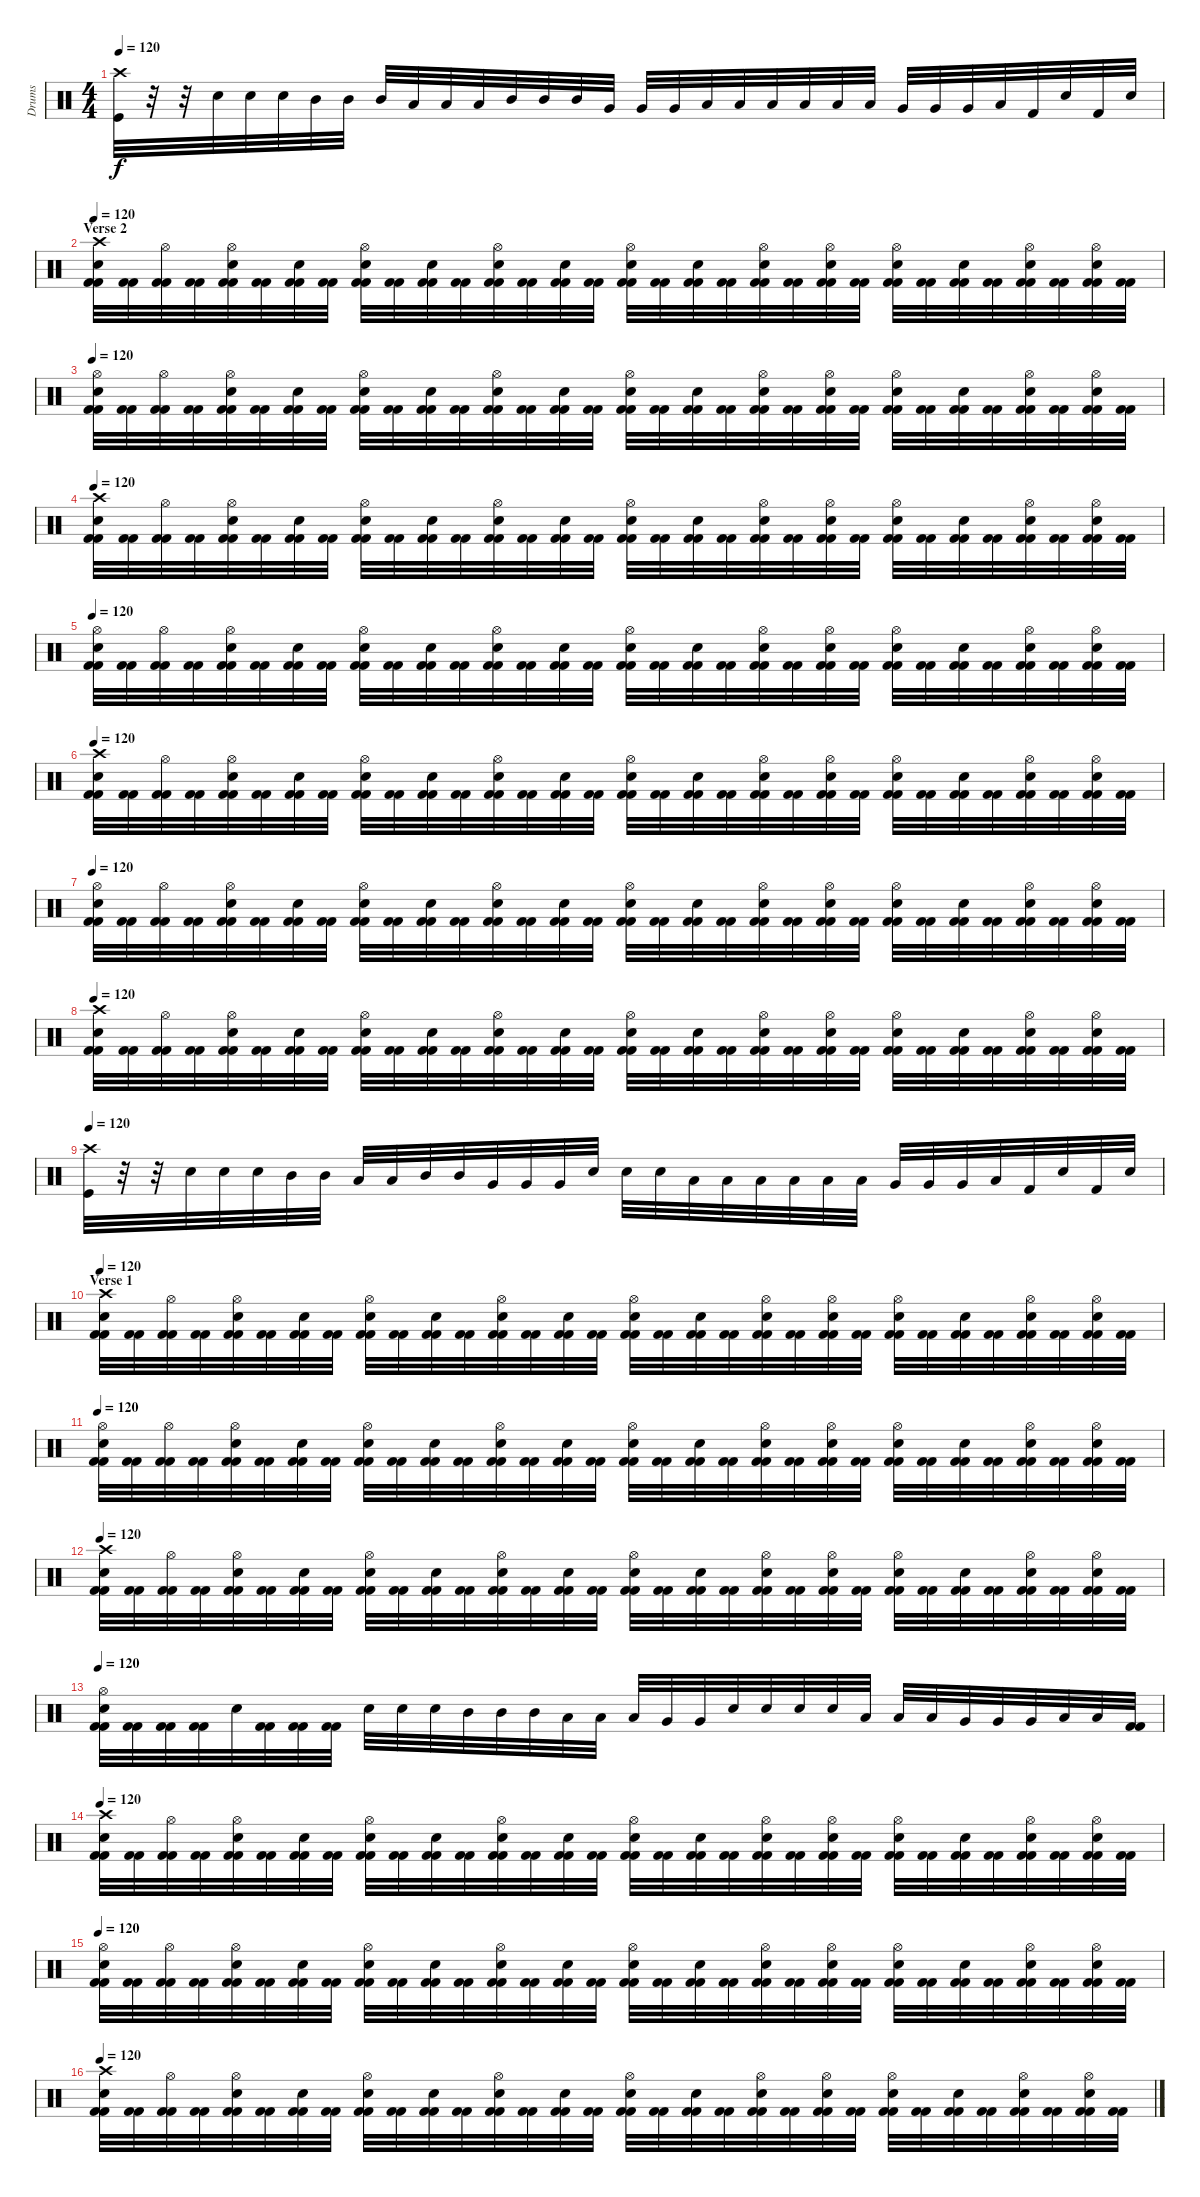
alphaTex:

\track ("Drums" "Drums") {instrument percussion}
\staff {score}
\articulation defaults
\ts (4 4)
\tempo 120
\clef neutral
\ks c
("Crash high (hit)" "Kick (hit)").32{dy f} r.32 r.32 "Electric Snare (hit)".32 "Electric Snare (hit)".32 "Electric Snare (hit)".32 "Mid Tom (hit)".32 "Mid Tom (hit)".32 "Mid Tom (hit)".32 "Low Tom (hit)".32 "Low Tom (hit)".32 "Low Tom (hit)".32 "Mid Tom (hit)".32 "Mid Tom (hit)".32 "Mid Tom (hit)".32 "Very Low Tom (hit)".32 "Very Low Tom (hit)".32 "Very Low Tom (hit)".32 "Low Tom (hit)".32 "Low Tom (hit)".32 "Low Tom (hit)".32 "Low Floor Tom (hit)".32 "Low Floor Tom (hit)".32 "Low Floor Tom (hit)".32 "Very Low Tom (hit)".32 "Very Low Tom (hit)".32 "Very Low Tom (hit)".32 "Low Floor Tom (hit)".32 "Kick (hit) 2".32 "Electric Snare (hit)".32 "Kick (hit) 2".32 "Electric Snare (hit)".32 |
\section ("" "Verse 2")
\tempo 120
("Crash high (hit)" "Electric Snare (hit)" "Kick (hit) 2" "Kick (hit) 2").32 ("Kick (hit) 2" "Kick (hit) 2").32 ("Hi-Hat (open)" "Kick (hit) 2" "Kick (hit) 2").32 ("Kick (hit) 2" "Kick (hit) 2").32 ("Hi-Hat (open)" "Electric Snare (hit)" "Kick (hit) 2" "Kick (hit) 2").32 ("Kick (hit) 2" "Kick (hit) 2").32 ("Electric Snare (hit)" "Kick (hit) 2" "Kick (hit) 2").32 ("Kick (hit) 2" "Kick (hit) 2").32 ("Hi-Hat (open)" "Electric Snare (hit)" "Kick (hit) 2" "Kick (hit) 2").32 ("Kick (hit) 2" "Kick (hit) 2").32 ("Electric Snare (hit)" "Kick (hit) 2" "Kick (hit) 2").32 ("Kick (hit) 2" "Kick (hit) 2").32 ("Hi-Hat (open)" "Electric Snare (hit)" "Kick (hit) 2" "Kick (hit) 2").32 ("Kick (hit) 2" "Kick (hit) 2").32 ("Electric Snare (hit)" "Kick (hit) 2" "Kick (hit) 2").32 ("Kick (hit) 2" "Kick (hit) 2").32 ("Hi-Hat (open)" "Electric Snare (hit)" "Kick (hit) 2" "Kick (hit) 2").32 ("Kick (hit) 2" "Kick (hit) 2").32 ("Electric Snare (hit)" "Kick (hit) 2" "Kick (hit) 2").32 ("Kick (hit) 2" "Kick (hit) 2").32 ("Hi-Hat (open)" "Electric Snare (hit)" "Kick (hit) 2" "Kick (hit) 2").32 ("Kick (hit) 2" "Kick (hit) 2").32 ("Hi-Hat (open)" "Electric Snare (hit)" "Kick (hit) 2" "Kick (hit) 2").32 ("Kick (hit) 2" "Kick (hit) 2").32 ("Hi-Hat (open)" "Electric Snare (hit)" "Kick (hit) 2" "Kick (hit) 2").32 ("Kick (hit) 2" "Kick (hit) 2").32 ("Electric Snare (hit)" "Kick (hit) 2" "Kick (hit) 2").32 ("Kick (hit) 2" "Kick (hit) 2").32 ("Hi-Hat (open)" "Electric Snare (hit)" "Kick (hit) 2" "Kick (hit) 2").32 ("Kick (hit) 2" "Kick (hit) 2").32 ("Hi-Hat (open)" "Electric Snare (hit)" "Kick (hit) 2" "Kick (hit) 2").32 ("Kick (hit) 2" "Kick (hit) 2").32 |
\tempo 120
("Hi-Hat (open)" "Electric Snare (hit)" "Kick (hit) 2" "Kick (hit) 2").32 ("Kick (hit) 2" "Kick (hit) 2").32 ("Hi-Hat (open)" "Kick (hit) 2" "Kick (hit) 2").32 ("Kick (hit) 2" "Kick (hit) 2").32 ("Hi-Hat (open)" "Electric Snare (hit)" "Kick (hit) 2" "Kick (hit) 2").32 ("Kick (hit) 2" "Kick (hit) 2").32 ("Electric Snare (hit)" "Kick (hit) 2" "Kick (hit) 2").32 ("Kick (hit) 2" "Kick (hit) 2").32 ("Hi-Hat (open)" "Electric Snare (hit)" "Kick (hit) 2" "Kick (hit) 2").32 ("Kick (hit) 2" "Kick (hit) 2").32 ("Electric Snare (hit)" "Kick (hit) 2" "Kick (hit) 2").32 ("Kick (hit) 2" "Kick (hit) 2").32 ("Hi-Hat (open)" "Electric Snare (hit)" "Kick (hit) 2" "Kick (hit) 2").32 ("Kick (hit) 2" "Kick (hit) 2").32 ("Electric Snare (hit)" "Kick (hit) 2" "Kick (hit) 2").32 ("Kick (hit) 2" "Kick (hit) 2").32 ("Hi-Hat (open)" "Electric Snare (hit)" "Kick (hit) 2" "Kick (hit) 2").32 ("Kick (hit) 2" "Kick (hit) 2").32 ("Electric Snare (hit)" "Kick (hit) 2" "Kick (hit) 2").32 ("Kick (hit) 2" "Kick (hit) 2").32 ("Hi-Hat (open)" "Electric Snare (hit)" "Kick (hit) 2" "Kick (hit) 2").32 ("Kick (hit) 2" "Kick (hit) 2").32 ("Hi-Hat (open)" "Electric Snare (hit)" "Kick (hit) 2" "Kick (hit) 2").32 ("Kick (hit) 2" "Kick (hit) 2").32 ("Hi-Hat (open)" "Electric Snare (hit)" "Kick (hit) 2" "Kick (hit) 2").32 ("Kick (hit) 2" "Kick (hit) 2").32 ("Electric Snare (hit)" "Kick (hit) 2" "Kick (hit) 2").32 ("Kick (hit) 2" "Kick (hit) 2").32 ("Hi-Hat (open)" "Electric Snare (hit)" "Kick (hit) 2" "Kick (hit) 2").32 ("Kick (hit) 2" "Kick (hit) 2").32 ("Hi-Hat (open)" "Electric Snare (hit)" "Kick (hit) 2" "Kick (hit) 2").32 ("Kick (hit) 2" "Kick (hit) 2").32 |
\tempo 120
("Crash high (hit)" "Electric Snare (hit)" "Kick (hit) 2" "Kick (hit) 2").32 ("Kick (hit) 2" "Kick (hit) 2").32 ("Hi-Hat (open)" "Kick (hit) 2" "Kick (hit) 2").32 ("Kick (hit) 2" "Kick (hit) 2").32 ("Hi-Hat (open)" "Electric Snare (hit)" "Kick (hit) 2" "Kick (hit) 2").32 ("Kick (hit) 2" "Kick (hit) 2").32 ("Electric Snare (hit)" "Kick (hit) 2" "Kick (hit) 2").32 ("Kick (hit) 2" "Kick (hit) 2").32 ("Hi-Hat (open)" "Electric Snare (hit)" "Kick (hit) 2" "Kick (hit) 2").32 ("Kick (hit) 2" "Kick (hit) 2").32 ("Electric Snare (hit)" "Kick (hit) 2" "Kick (hit) 2").32 ("Kick (hit) 2" "Kick (hit) 2").32 ("Hi-Hat (open)" "Electric Snare (hit)" "Kick (hit) 2" "Kick (hit) 2").32 ("Kick (hit) 2" "Kick (hit) 2").32 ("Electric Snare (hit)" "Kick (hit) 2" "Kick (hit) 2").32 ("Kick (hit) 2" "Kick (hit) 2").32 ("Hi-Hat (open)" "Electric Snare (hit)" "Kick (hit) 2" "Kick (hit) 2").32 ("Kick (hit) 2" "Kick (hit) 2").32 ("Electric Snare (hit)" "Kick (hit) 2" "Kick (hit) 2").32 ("Kick (hit) 2" "Kick (hit) 2").32 ("Hi-Hat (open)" "Electric Snare (hit)" "Kick (hit) 2" "Kick (hit) 2").32 ("Kick (hit) 2" "Kick (hit) 2").32 ("Hi-Hat (open)" "Electric Snare (hit)" "Kick (hit) 2" "Kick (hit) 2").32 ("Kick (hit) 2" "Kick (hit) 2").32 ("Hi-Hat (open)" "Electric Snare (hit)" "Kick (hit) 2" "Kick (hit) 2").32 ("Kick (hit) 2" "Kick (hit) 2").32 ("Electric Snare (hit)" "Kick (hit) 2" "Kick (hit) 2").32 ("Kick (hit) 2" "Kick (hit) 2").32 ("Hi-Hat (open)" "Electric Snare (hit)" "Kick (hit) 2" "Kick (hit) 2").32 ("Kick (hit) 2" "Kick (hit) 2").32 ("Hi-Hat (open)" "Electric Snare (hit)" "Kick (hit) 2" "Kick (hit) 2").32 ("Kick (hit) 2" "Kick (hit) 2").32 |
\tempo 120
("Hi-Hat (open)" "Electric Snare (hit)" "Kick (hit) 2" "Kick (hit) 2").32 ("Kick (hit) 2" "Kick (hit) 2").32 ("Hi-Hat (open)" "Kick (hit) 2" "Kick (hit) 2").32 ("Kick (hit) 2" "Kick (hit) 2").32 ("Hi-Hat (open)" "Electric Snare (hit)" "Kick (hit) 2" "Kick (hit) 2").32 ("Kick (hit) 2" "Kick (hit) 2").32 ("Electric Snare (hit)" "Kick (hit) 2" "Kick (hit) 2").32 ("Kick (hit) 2" "Kick (hit) 2").32 ("Hi-Hat (open)" "Electric Snare (hit)" "Kick (hit) 2" "Kick (hit) 2").32 ("Kick (hit) 2" "Kick (hit) 2").32 ("Electric Snare (hit)" "Kick (hit) 2" "Kick (hit) 2").32 ("Kick (hit) 2" "Kick (hit) 2").32 ("Hi-Hat (open)" "Electric Snare (hit)" "Kick (hit) 2" "Kick (hit) 2").32 ("Kick (hit) 2" "Kick (hit) 2").32 ("Electric Snare (hit)" "Kick (hit) 2" "Kick (hit) 2").32 ("Kick (hit) 2" "Kick (hit) 2").32 ("Hi-Hat (open)" "Electric Snare (hit)" "Kick (hit) 2" "Kick (hit) 2").32 ("Kick (hit) 2" "Kick (hit) 2").32 ("Electric Snare (hit)" "Kick (hit) 2" "Kick (hit) 2").32 ("Kick (hit) 2" "Kick (hit) 2").32 ("Hi-Hat (open)" "Electric Snare (hit)" "Kick (hit) 2" "Kick (hit) 2").32 ("Kick (hit) 2" "Kick (hit) 2").32 ("Hi-Hat (open)" "Electric Snare (hit)" "Kick (hit) 2" "Kick (hit) 2").32 ("Kick (hit) 2" "Kick (hit) 2").32 ("Hi-Hat (open)" "Electric Snare (hit)" "Kick (hit) 2" "Kick (hit) 2").32 ("Kick (hit) 2" "Kick (hit) 2").32 ("Electric Snare (hit)" "Kick (hit) 2" "Kick (hit) 2").32 ("Kick (hit) 2" "Kick (hit) 2").32 ("Hi-Hat (open)" "Electric Snare (hit)" "Kick (hit) 2" "Kick (hit) 2").32 ("Kick (hit) 2" "Kick (hit) 2").32 ("Hi-Hat (open)" "Electric Snare (hit)" "Kick (hit) 2" "Kick (hit) 2").32 ("Kick (hit) 2" "Kick (hit) 2").32 |
\tempo 120
("Crash high (hit)" "Electric Snare (hit)" "Kick (hit) 2" "Kick (hit) 2").32 ("Kick (hit) 2" "Kick (hit) 2").32 ("Hi-Hat (open)" "Kick (hit) 2" "Kick (hit) 2").32 ("Kick (hit) 2" "Kick (hit) 2").32 ("Hi-Hat (open)" "Electric Snare (hit)" "Kick (hit) 2" "Kick (hit) 2").32 ("Kick (hit) 2" "Kick (hit) 2").32 ("Electric Snare (hit)" "Kick (hit) 2" "Kick (hit) 2").32 ("Kick (hit) 2" "Kick (hit) 2").32 ("Hi-Hat (open)" "Electric Snare (hit)" "Kick (hit) 2" "Kick (hit) 2").32 ("Kick (hit) 2" "Kick (hit) 2").32 ("Electric Snare (hit)" "Kick (hit) 2" "Kick (hit) 2").32 ("Kick (hit) 2" "Kick (hit) 2").32 ("Hi-Hat (open)" "Electric Snare (hit)" "Kick (hit) 2" "Kick (hit) 2").32 ("Kick (hit) 2" "Kick (hit) 2").32 ("Electric Snare (hit)" "Kick (hit) 2" "Kick (hit) 2").32 ("Kick (hit) 2" "Kick (hit) 2").32 ("Hi-Hat (open)" "Electric Snare (hit)" "Kick (hit) 2" "Kick (hit) 2").32 ("Kick (hit) 2" "Kick (hit) 2").32 ("Electric Snare (hit)" "Kick (hit) 2" "Kick (hit) 2").32 ("Kick (hit) 2" "Kick (hit) 2").32 ("Hi-Hat (open)" "Electric Snare (hit)" "Kick (hit) 2" "Kick (hit) 2").32 ("Kick (hit) 2" "Kick (hit) 2").32 ("Hi-Hat (open)" "Electric Snare (hit)" "Kick (hit) 2" "Kick (hit) 2").32 ("Kick (hit) 2" "Kick (hit) 2").32 ("Hi-Hat (open)" "Electric Snare (hit)" "Kick (hit) 2" "Kick (hit) 2").32 ("Kick (hit) 2" "Kick (hit) 2").32 ("Electric Snare (hit)" "Kick (hit) 2" "Kick (hit) 2").32 ("Kick (hit) 2" "Kick (hit) 2").32 ("Hi-Hat (open)" "Electric Snare (hit)" "Kick (hit) 2" "Kick (hit) 2").32 ("Kick (hit) 2" "Kick (hit) 2").32 ("Hi-Hat (open)" "Electric Snare (hit)" "Kick (hit) 2" "Kick (hit) 2").32 ("Kick (hit) 2" "Kick (hit) 2").32 |
\tempo 120
("Hi-Hat (open)" "Electric Snare (hit)" "Kick (hit) 2" "Kick (hit) 2").32 ("Kick (hit) 2" "Kick (hit) 2").32 ("Hi-Hat (open)" "Kick (hit) 2" "Kick (hit) 2").32 ("Kick (hit) 2" "Kick (hit) 2").32 ("Hi-Hat (open)" "Electric Snare (hit)" "Kick (hit) 2" "Kick (hit) 2").32 ("Kick (hit) 2" "Kick (hit) 2").32 ("Electric Snare (hit)" "Kick (hit) 2" "Kick (hit) 2").32 ("Kick (hit) 2" "Kick (hit) 2").32 ("Hi-Hat (open)" "Electric Snare (hit)" "Kick (hit) 2" "Kick (hit) 2").32 ("Kick (hit) 2" "Kick (hit) 2").32 ("Electric Snare (hit)" "Kick (hit) 2" "Kick (hit) 2").32 ("Kick (hit) 2" "Kick (hit) 2").32 ("Hi-Hat (open)" "Electric Snare (hit)" "Kick (hit) 2" "Kick (hit) 2").32 ("Kick (hit) 2" "Kick (hit) 2").32 ("Electric Snare (hit)" "Kick (hit) 2" "Kick (hit) 2").32 ("Kick (hit) 2" "Kick (hit) 2").32 ("Hi-Hat (open)" "Electric Snare (hit)" "Kick (hit) 2" "Kick (hit) 2").32 ("Kick (hit) 2" "Kick (hit) 2").32 ("Electric Snare (hit)" "Kick (hit) 2" "Kick (hit) 2").32 ("Kick (hit) 2" "Kick (hit) 2").32 ("Hi-Hat (open)" "Electric Snare (hit)" "Kick (hit) 2" "Kick (hit) 2").32 ("Kick (hit) 2" "Kick (hit) 2").32 ("Hi-Hat (open)" "Electric Snare (hit)" "Kick (hit) 2" "Kick (hit) 2").32 ("Kick (hit) 2" "Kick (hit) 2").32 ("Hi-Hat (open)" "Electric Snare (hit)" "Kick (hit) 2" "Kick (hit) 2").32 ("Kick (hit) 2" "Kick (hit) 2").32 ("Electric Snare (hit)" "Kick (hit) 2" "Kick (hit) 2").32 ("Kick (hit) 2" "Kick (hit) 2").32 ("Hi-Hat (open)" "Electric Snare (hit)" "Kick (hit) 2" "Kick (hit) 2").32 ("Kick (hit) 2" "Kick (hit) 2").32 ("Hi-Hat (open)" "Electric Snare (hit)" "Kick (hit) 2" "Kick (hit) 2").32 ("Kick (hit) 2" "Kick (hit) 2").32 |
\tempo 120
("Crash high (hit)" "Electric Snare (hit)" "Kick (hit) 2" "Kick (hit) 2").32 ("Kick (hit) 2" "Kick (hit) 2").32 ("Hi-Hat (open)" "Kick (hit) 2" "Kick (hit) 2").32 ("Kick (hit) 2" "Kick (hit) 2").32 ("Hi-Hat (open)" "Electric Snare (hit)" "Kick (hit) 2" "Kick (hit) 2").32 ("Kick (hit) 2" "Kick (hit) 2").32 ("Electric Snare (hit)" "Kick (hit) 2" "Kick (hit) 2").32 ("Kick (hit) 2" "Kick (hit) 2").32 ("Hi-Hat (open)" "Electric Snare (hit)" "Kick (hit) 2" "Kick (hit) 2").32 ("Kick (hit) 2" "Kick (hit) 2").32 ("Electric Snare (hit)" "Kick (hit) 2" "Kick (hit) 2").32 ("Kick (hit) 2" "Kick (hit) 2").32 ("Hi-Hat (open)" "Electric Snare (hit)" "Kick (hit) 2" "Kick (hit) 2").32 ("Kick (hit) 2" "Kick (hit) 2").32 ("Electric Snare (hit)" "Kick (hit) 2" "Kick (hit) 2").32 ("Kick (hit) 2" "Kick (hit) 2").32 ("Hi-Hat (open)" "Electric Snare (hit)" "Kick (hit) 2" "Kick (hit) 2").32 ("Kick (hit) 2" "Kick (hit) 2").32 ("Electric Snare (hit)" "Kick (hit) 2" "Kick (hit) 2").32 ("Kick (hit) 2" "Kick (hit) 2").32 ("Hi-Hat (open)" "Electric Snare (hit)" "Kick (hit) 2" "Kick (hit) 2").32 ("Kick (hit) 2" "Kick (hit) 2").32 ("Hi-Hat (open)" "Electric Snare (hit)" "Kick (hit) 2" "Kick (hit) 2").32 ("Kick (hit) 2" "Kick (hit) 2").32 ("Hi-Hat (open)" "Electric Snare (hit)" "Kick (hit) 2" "Kick (hit) 2").32 ("Kick (hit) 2" "Kick (hit) 2").32 ("Electric Snare (hit)" "Kick (hit) 2" "Kick (hit) 2").32 ("Kick (hit) 2" "Kick (hit) 2").32 ("Hi-Hat (open)" "Electric Snare (hit)" "Kick (hit) 2" "Kick (hit) 2").32 ("Kick (hit) 2" "Kick (hit) 2").32 ("Hi-Hat (open)" "Electric Snare (hit)" "Kick (hit) 2" "Kick (hit) 2").32 ("Kick (hit) 2" "Kick (hit) 2").32 |
\tempo 120
("Crash high (hit)" "Kick (hit)").32 r.32 r.32 "Electric Snare (hit)".32 "Electric Snare (hit)".32 "Electric Snare (hit)".32 "Mid Tom (hit)".32 "Mid Tom (hit)".32 "Low Tom (hit)".32 "Low Tom (hit)".32 "Mid Tom (hit)".32 "Mid Tom (hit)".32 "Very Low Tom (hit)".32 "Very Low Tom (hit)".32 "Very Low Tom (hit)".32 "Electric Snare (hit)".32 "Electric Snare (hit)".32 "Electric Snare (hit)".32 "Low Tom (hit)".32 "Low Tom (hit)".32 "Low Tom (hit)".32 "Low Floor Tom (hit)".32 "Low Floor Tom (hit)".32 "Low Floor Tom (hit)".32 "Very Low Tom (hit)".32 "Very Low Tom (hit)".32 "Very Low Tom (hit)".32 "Low Floor Tom (hit)".32 "Kick (hit) 2".32 "Electric Snare (hit)".32 "Kick (hit) 2".32 "Electric Snare (hit)".32 |
\section ("" "Verse 1")
\tempo 120
("Crash high (hit)" "Electric Snare (hit)" "Kick (hit) 2" "Kick (hit) 2").32 ("Kick (hit) 2" "Kick (hit) 2").32 ("Hi-Hat (open)" "Kick (hit) 2" "Kick (hit) 2").32 ("Kick (hit) 2" "Kick (hit) 2").32 ("Hi-Hat (open)" "Electric Snare (hit)" "Kick (hit) 2" "Kick (hit) 2").32 ("Kick (hit) 2" "Kick (hit) 2").32 ("Electric Snare (hit)" "Kick (hit) 2" "Kick (hit) 2").32 ("Kick (hit) 2" "Kick (hit) 2").32 ("Hi-Hat (open)" "Electric Snare (hit)" "Kick (hit) 2" "Kick (hit) 2").32 ("Kick (hit) 2" "Kick (hit) 2").32 ("Electric Snare (hit)" "Kick (hit) 2" "Kick (hit) 2").32 ("Kick (hit) 2" "Kick (hit) 2").32 ("Hi-Hat (open)" "Electric Snare (hit)" "Kick (hit) 2" "Kick (hit) 2").32 ("Kick (hit) 2" "Kick (hit) 2").32 ("Electric Snare (hit)" "Kick (hit) 2" "Kick (hit) 2").32 ("Kick (hit) 2" "Kick (hit) 2").32 ("Hi-Hat (open)" "Electric Snare (hit)" "Kick (hit) 2" "Kick (hit) 2").32 ("Kick (hit) 2" "Kick (hit) 2").32 ("Electric Snare (hit)" "Kick (hit) 2" "Kick (hit) 2").32 ("Kick (hit) 2" "Kick (hit) 2").32 ("Hi-Hat (open)" "Electric Snare (hit)" "Kick (hit) 2" "Kick (hit) 2").32 ("Kick (hit) 2" "Kick (hit) 2").32 ("Hi-Hat (open)" "Electric Snare (hit)" "Kick (hit) 2" "Kick (hit) 2").32 ("Kick (hit) 2" "Kick (hit) 2").32 ("Hi-Hat (open)" "Electric Snare (hit)" "Kick (hit) 2" "Kick (hit) 2").32 ("Kick (hit) 2" "Kick (hit) 2").32 ("Electric Snare (hit)" "Kick (hit) 2" "Kick (hit) 2").32 ("Kick (hit) 2" "Kick (hit) 2").32 ("Hi-Hat (open)" "Electric Snare (hit)" "Kick (hit) 2" "Kick (hit) 2").32 ("Kick (hit) 2" "Kick (hit) 2").32 ("Hi-Hat (open)" "Electric Snare (hit)" "Kick (hit) 2" "Kick (hit) 2").32 ("Kick (hit) 2" "Kick (hit) 2").32 |
\tempo 120
("Hi-Hat (open)" "Electric Snare (hit)" "Kick (hit) 2" "Kick (hit) 2").32 ("Kick (hit) 2" "Kick (hit) 2").32 ("Hi-Hat (open)" "Kick (hit) 2" "Kick (hit) 2").32 ("Kick (hit) 2" "Kick (hit) 2").32 ("Hi-Hat (open)" "Electric Snare (hit)" "Kick (hit) 2" "Kick (hit) 2").32 ("Kick (hit) 2" "Kick (hit) 2").32 ("Electric Snare (hit)" "Kick (hit) 2" "Kick (hit) 2").32 ("Kick (hit) 2" "Kick (hit) 2").32 ("Hi-Hat (open)" "Electric Snare (hit)" "Kick (hit) 2" "Kick (hit) 2").32 ("Kick (hit) 2" "Kick (hit) 2").32 ("Electric Snare (hit)" "Kick (hit) 2" "Kick (hit) 2").32 ("Kick (hit) 2" "Kick (hit) 2").32 ("Hi-Hat (open)" "Electric Snare (hit)" "Kick (hit) 2" "Kick (hit) 2").32 ("Kick (hit) 2" "Kick (hit) 2").32 ("Electric Snare (hit)" "Kick (hit) 2" "Kick (hit) 2").32 ("Kick (hit) 2" "Kick (hit) 2").32 ("Hi-Hat (open)" "Electric Snare (hit)" "Kick (hit) 2" "Kick (hit) 2").32 ("Kick (hit) 2" "Kick (hit) 2").32 ("Electric Snare (hit)" "Kick (hit) 2" "Kick (hit) 2").32 ("Kick (hit) 2" "Kick (hit) 2").32 ("Hi-Hat (open)" "Electric Snare (hit)" "Kick (hit) 2" "Kick (hit) 2").32 ("Kick (hit) 2" "Kick (hit) 2").32 ("Hi-Hat (open)" "Electric Snare (hit)" "Kick (hit) 2" "Kick (hit) 2").32 ("Kick (hit) 2" "Kick (hit) 2").32 ("Hi-Hat (open)" "Electric Snare (hit)" "Kick (hit) 2" "Kick (hit) 2").32 ("Kick (hit) 2" "Kick (hit) 2").32 ("Electric Snare (hit)" "Kick (hit) 2" "Kick (hit) 2").32 ("Kick (hit) 2" "Kick (hit) 2").32 ("Hi-Hat (open)" "Electric Snare (hit)" "Kick (hit) 2" "Kick (hit) 2").32 ("Kick (hit) 2" "Kick (hit) 2").32 ("Hi-Hat (open)" "Electric Snare (hit)" "Kick (hit) 2" "Kick (hit) 2").32 ("Kick (hit) 2" "Kick (hit) 2").32 |
\tempo 120
("Crash high (hit)" "Electric Snare (hit)" "Kick (hit) 2" "Kick (hit) 2").32 ("Kick (hit) 2" "Kick (hit) 2").32 ("Hi-Hat (open)" "Kick (hit) 2" "Kick (hit) 2").32 ("Kick (hit) 2" "Kick (hit) 2").32 ("Hi-Hat (open)" "Electric Snare (hit)" "Kick (hit) 2" "Kick (hit) 2").32 ("Kick (hit) 2" "Kick (hit) 2").32 ("Electric Snare (hit)" "Kick (hit) 2" "Kick (hit) 2").32 ("Kick (hit) 2" "Kick (hit) 2").32 ("Hi-Hat (open)" "Electric Snare (hit)" "Kick (hit) 2" "Kick (hit) 2").32 ("Kick (hit) 2" "Kick (hit) 2").32 ("Electric Snare (hit)" "Kick (hit) 2" "Kick (hit) 2").32 ("Kick (hit) 2" "Kick (hit) 2").32 ("Hi-Hat (open)" "Electric Snare (hit)" "Kick (hit) 2" "Kick (hit) 2").32 ("Kick (hit) 2" "Kick (hit) 2").32 ("Electric Snare (hit)" "Kick (hit) 2" "Kick (hit) 2").32 ("Kick (hit) 2" "Kick (hit) 2").32 ("Hi-Hat (open)" "Electric Snare (hit)" "Kick (hit) 2" "Kick (hit) 2").32 ("Kick (hit) 2" "Kick (hit) 2").32 ("Electric Snare (hit)" "Kick (hit) 2" "Kick (hit) 2").32 ("Kick (hit) 2" "Kick (hit) 2").32 ("Hi-Hat (open)" "Electric Snare (hit)" "Kick (hit) 2" "Kick (hit) 2").32 ("Kick (hit) 2" "Kick (hit) 2").32 ("Hi-Hat (open)" "Electric Snare (hit)" "Kick (hit) 2" "Kick (hit) 2").32 ("Kick (hit) 2" "Kick (hit) 2").32 ("Hi-Hat (open)" "Electric Snare (hit)" "Kick (hit) 2" "Kick (hit) 2").32 ("Kick (hit) 2" "Kick (hit) 2").32 ("Electric Snare (hit)" "Kick (hit) 2" "Kick (hit) 2").32 ("Kick (hit) 2" "Kick (hit) 2").32 ("Hi-Hat (open)" "Electric Snare (hit)" "Kick (hit) 2" "Kick (hit) 2").32 ("Kick (hit) 2" "Kick (hit) 2").32 ("Hi-Hat (open)" "Electric Snare (hit)" "Kick (hit) 2" "Kick (hit) 2").32 ("Kick (hit) 2" "Kick (hit) 2").32 |
\tempo 120
("Hi-Hat (open)" "Electric Snare (hit)" "Kick (hit) 2" "Kick (hit) 2").32 ("Kick (hit) 2" "Kick (hit) 2").32 ("Kick (hit) 2" "Kick (hit) 2").32 ("Kick (hit) 2" "Kick (hit) 2").32 "Electric Snare (hit)".32 ("Kick (hit) 2" "Kick (hit) 2").32 ("Kick (hit) 2" "Kick (hit) 2").32 ("Kick (hit) 2" "Kick (hit) 2").32 "Electric Snare (hit)".32 "Electric Snare (hit)".32 "Electric Snare (hit)".32 "Mid Tom (hit)".32 "Mid Tom (hit)".32 "Mid Tom (hit)".32 "Low Tom (hit)".32 "Low Tom (hit)".32 "Low Tom (hit)".32 "Very Low Tom (hit)".32 "Very Low Tom (hit)".32 "Electric Snare (hit)".32 "Electric Snare (hit)".32 "Electric Snare (hit)".32 "Electric Snare (hit)".32 "Low Tom (hit)".32 "Low Tom (hit)".32 "Low Tom (hit)".32 "Very Low Tom (hit)".32 "Very Low Tom (hit)".32 "Very Low Tom (hit)".32 "Low Floor Tom (hit)".32 "Low Floor Tom (hit)".32 ("Kick (hit) 2" "Kick (hit) 2").32 |
\tempo 120
("Crash high (hit)" "Electric Snare (hit)" "Kick (hit) 2" "Kick (hit) 2").32 ("Kick (hit) 2" "Kick (hit) 2").32 ("Hi-Hat (open)" "Kick (hit) 2" "Kick (hit) 2").32 ("Kick (hit) 2" "Kick (hit) 2").32 ("Hi-Hat (open)" "Electric Snare (hit)" "Kick (hit) 2" "Kick (hit) 2").32 ("Kick (hit) 2" "Kick (hit) 2").32 ("Electric Snare (hit)" "Kick (hit) 2" "Kick (hit) 2").32 ("Kick (hit) 2" "Kick (hit) 2").32 ("Hi-Hat (open)" "Electric Snare (hit)" "Kick (hit) 2" "Kick (hit) 2").32 ("Kick (hit) 2" "Kick (hit) 2").32 ("Electric Snare (hit)" "Kick (hit) 2" "Kick (hit) 2").32 ("Kick (hit) 2" "Kick (hit) 2").32 ("Hi-Hat (open)" "Electric Snare (hit)" "Kick (hit) 2" "Kick (hit) 2").32 ("Kick (hit) 2" "Kick (hit) 2").32 ("Electric Snare (hit)" "Kick (hit) 2" "Kick (hit) 2").32 ("Kick (hit) 2" "Kick (hit) 2").32 ("Hi-Hat (open)" "Electric Snare (hit)" "Kick (hit) 2" "Kick (hit) 2").32 ("Kick (hit) 2" "Kick (hit) 2").32 ("Electric Snare (hit)" "Kick (hit) 2" "Kick (hit) 2").32 ("Kick (hit) 2" "Kick (hit) 2").32 ("Hi-Hat (open)" "Electric Snare (hit)" "Kick (hit) 2" "Kick (hit) 2").32 ("Kick (hit) 2" "Kick (hit) 2").32 ("Hi-Hat (open)" "Electric Snare (hit)" "Kick (hit) 2" "Kick (hit) 2").32 ("Kick (hit) 2" "Kick (hit) 2").32 ("Hi-Hat (open)" "Electric Snare (hit)" "Kick (hit) 2" "Kick (hit) 2").32 ("Kick (hit) 2" "Kick (hit) 2").32 ("Electric Snare (hit)" "Kick (hit) 2" "Kick (hit) 2").32 ("Kick (hit) 2" "Kick (hit) 2").32 ("Hi-Hat (open)" "Electric Snare (hit)" "Kick (hit) 2" "Kick (hit) 2").32 ("Kick (hit) 2" "Kick (hit) 2").32 ("Hi-Hat (open)" "Electric Snare (hit)" "Kick (hit) 2" "Kick (hit) 2").32 ("Kick (hit) 2" "Kick (hit) 2").32 |
\tempo 120
("Hi-Hat (open)" "Electric Snare (hit)" "Kick (hit) 2" "Kick (hit) 2").32 ("Kick (hit) 2" "Kick (hit) 2").32 ("Hi-Hat (open)" "Kick (hit) 2" "Kick (hit) 2").32 ("Kick (hit) 2" "Kick (hit) 2").32 ("Hi-Hat (open)" "Electric Snare (hit)" "Kick (hit) 2" "Kick (hit) 2").32 ("Kick (hit) 2" "Kick (hit) 2").32 ("Electric Snare (hit)" "Kick (hit) 2" "Kick (hit) 2").32 ("Kick (hit) 2" "Kick (hit) 2").32 ("Hi-Hat (open)" "Electric Snare (hit)" "Kick (hit) 2" "Kick (hit) 2").32 ("Kick (hit) 2" "Kick (hit) 2").32 ("Electric Snare (hit)" "Kick (hit) 2" "Kick (hit) 2").32 ("Kick (hit) 2" "Kick (hit) 2").32 ("Hi-Hat (open)" "Electric Snare (hit)" "Kick (hit) 2" "Kick (hit) 2").32 ("Kick (hit) 2" "Kick (hit) 2").32 ("Electric Snare (hit)" "Kick (hit) 2" "Kick (hit) 2").32 ("Kick (hit) 2" "Kick (hit) 2").32 ("Hi-Hat (open)" "Electric Snare (hit)" "Kick (hit) 2" "Kick (hit) 2").32 ("Kick (hit) 2" "Kick (hit) 2").32 ("Electric Snare (hit)" "Kick (hit) 2" "Kick (hit) 2").32 ("Kick (hit) 2" "Kick (hit) 2").32 ("Hi-Hat (open)" "Electric Snare (hit)" "Kick (hit) 2" "Kick (hit) 2").32 ("Kick (hit) 2" "Kick (hit) 2").32 ("Hi-Hat (open)" "Electric Snare (hit)" "Kick (hit) 2" "Kick (hit) 2").32 ("Kick (hit) 2" "Kick (hit) 2").32 ("Hi-Hat (open)" "Electric Snare (hit)" "Kick (hit) 2" "Kick (hit) 2").32 ("Kick (hit) 2" "Kick (hit) 2").32 ("Electric Snare (hit)" "Kick (hit) 2" "Kick (hit) 2").32 ("Kick (hit) 2" "Kick (hit) 2").32 ("Hi-Hat (open)" "Electric Snare (hit)" "Kick (hit) 2" "Kick (hit) 2").32 ("Kick (hit) 2" "Kick (hit) 2").32 ("Hi-Hat (open)" "Electric Snare (hit)" "Kick (hit) 2" "Kick (hit) 2").32 ("Kick (hit) 2" "Kick (hit) 2").32 |
\tempo 120
("Crash high (hit)" "Electric Snare (hit)" "Kick (hit) 2" "Kick (hit) 2").32 ("Kick (hit) 2" "Kick (hit) 2").32 ("Hi-Hat (open)" "Kick (hit) 2" "Kick (hit) 2").32 ("Kick (hit) 2" "Kick (hit) 2").32 ("Hi-Hat (open)" "Electric Snare (hit)" "Kick (hit) 2" "Kick (hit) 2").32 ("Kick (hit) 2" "Kick (hit) 2").32 ("Electric Snare (hit)" "Kick (hit) 2" "Kick (hit) 2").32 ("Kick (hit) 2" "Kick (hit) 2").32 ("Hi-Hat (open)" "Electric Snare (hit)" "Kick (hit) 2" "Kick (hit) 2").32 ("Kick (hit) 2" "Kick (hit) 2").32 ("Electric Snare (hit)" "Kick (hit) 2" "Kick (hit) 2").32 ("Kick (hit) 2" "Kick (hit) 2").32 ("Hi-Hat (open)" "Electric Snare (hit)" "Kick (hit) 2" "Kick (hit) 2").32 ("Kick (hit) 2" "Kick (hit) 2").32 ("Electric Snare (hit)" "Kick (hit) 2" "Kick (hit) 2").32 ("Kick (hit) 2" "Kick (hit) 2").32 ("Hi-Hat (open)" "Electric Snare (hit)" "Kick (hit) 2" "Kick (hit) 2").32 ("Kick (hit) 2" "Kick (hit) 2").32 ("Electric Snare (hit)" "Kick (hit) 2" "Kick (hit) 2").32 ("Kick (hit) 2" "Kick (hit) 2").32 ("Hi-Hat (open)" "Electric Snare (hit)" "Kick (hit) 2" "Kick (hit) 2").32 ("Kick (hit) 2" "Kick (hit) 2").32 ("Hi-Hat (open)" "Electric Snare (hit)" "Kick (hit) 2" "Kick (hit) 2").32 ("Kick (hit) 2" "Kick (hit) 2").32 ("Hi-Hat (open)" "Electric Snare (hit)" "Kick (hit) 2" "Kick (hit) 2").32 ("Kick (hit) 2" "Kick (hit) 2").32 ("Electric Snare (hit)" "Kick (hit) 2" "Kick (hit) 2").32 ("Kick (hit) 2" "Kick (hit) 2").32 ("Hi-Hat (open)" "Electric Snare (hit)" "Kick (hit) 2" "Kick (hit) 2").32 ("Kick (hit) 2" "Kick (hit) 2").32 ("Hi-Hat (open)" "Electric Snare (hit)" "Kick (hit) 2" "Kick (hit) 2").32 ("Kick (hit) 2" "Kick (hit) 2").32
